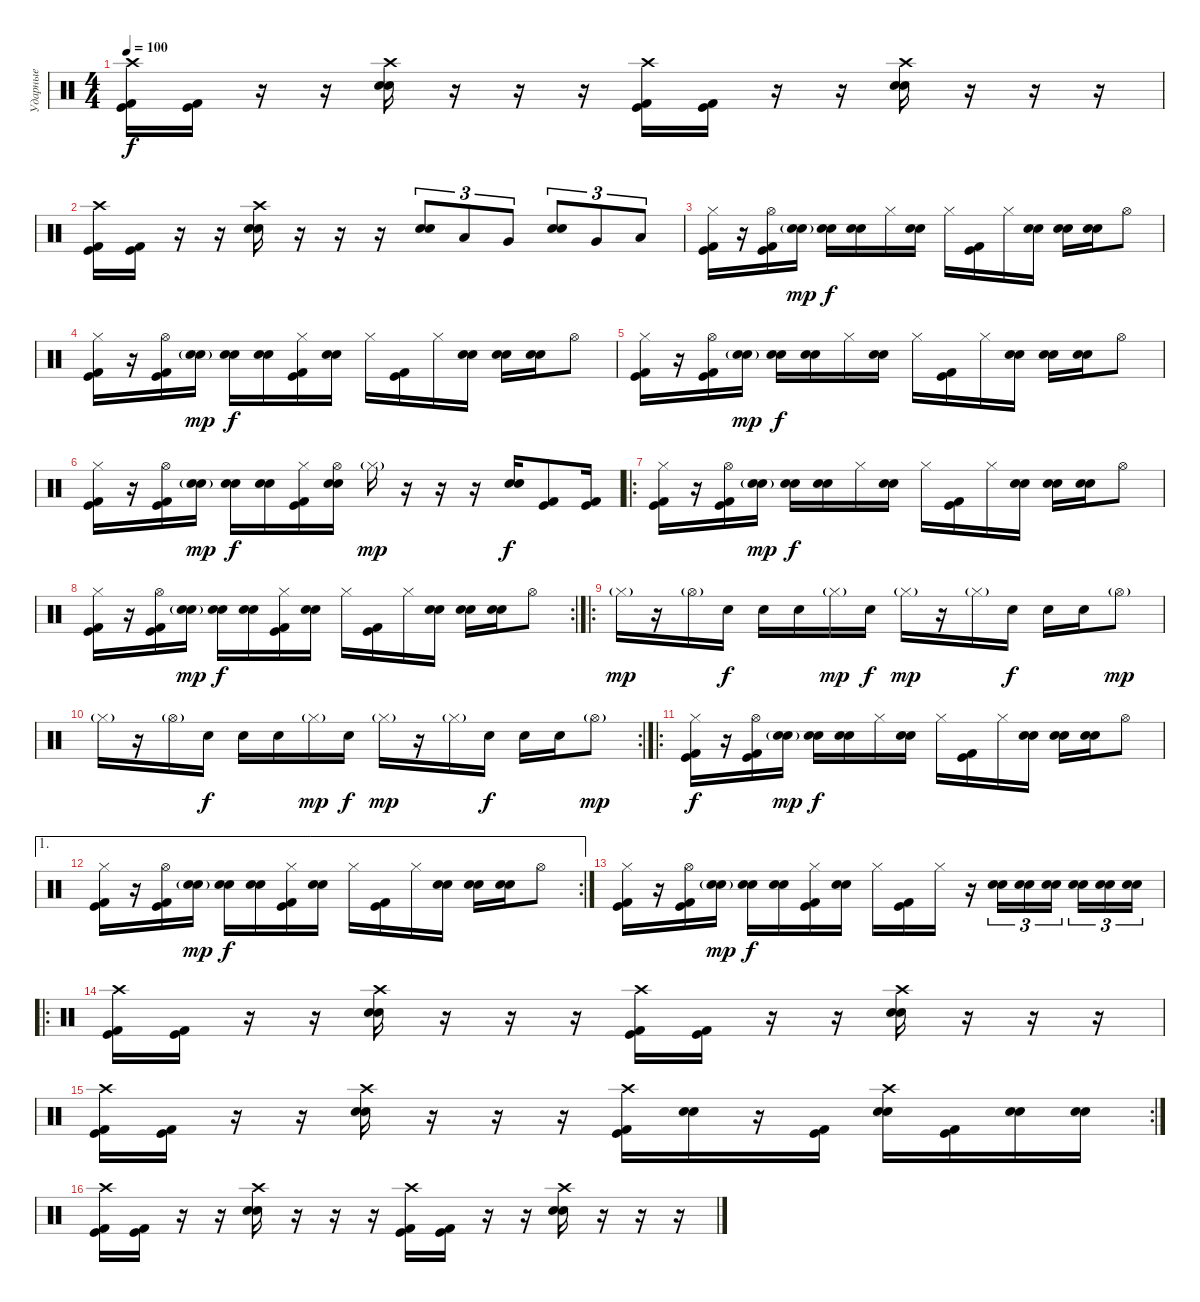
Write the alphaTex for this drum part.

\track ("Ударные" "Ударные") {instrument percussion}
\staff {score}
\articulation defaults
\ts (4 4)
\tempo 100
\clef neutral
\ks c
("Crash high (hit)" "Kick (hit)" "Kick (hit) 2").16{dy f} ("Kick (hit)" "Kick (hit) 2").16 r.16 r.16 ("Crash high (hit)" "Snare (hit) 2" "Electric Snare (hit)").16 r.16 r.16 r.16 ("Crash high (hit)" "Kick (hit)" "Kick (hit) 2").16 ("Kick (hit)" "Kick (hit) 2").16 r.16 r.16 ("Crash high (hit)" "Snare (hit) 2" "Electric Snare (hit)").16 r.16 r.16 r.16 |
("Crash high (hit)" "Kick (hit)" "Kick (hit) 2").16 ("Kick (hit)" "Kick (hit) 2").16 r.16 r.16 ("Crash high (hit)" "Snare (hit) 2" "Electric Snare (hit)").16 r.16 r.16 r.16 ("Snare (hit) 2" "Electric Snare (hit)").8{tu (3 2)} "Low Tom (hit)".8{tu (3 2)} "Very Low Tom (hit)".8{tu (3 2)} ("Snare (hit) 2" "Electric Snare (hit)").8{tu (3 2)} "Very Low Tom (hit)".8{tu (3 2)} "Low Floor Tom (hit)".8{tu (3 2)} |
("Hi-Hat (closed)" "Kick (hit)" "Kick (hit) 2").16 r.16 ("Hi-Hat (open)" "Kick (hit)" "Kick (hit) 2").16 ("Snare (hit) 2"{g} "Electric Snare (hit)"{g}).16{dy mp} ("Snare (hit) 2" "Electric Snare (hit)").16{dy f} ("Snare (hit) 2" "Electric Snare (hit)").16 "Hi-Hat (closed)".16 ("Snare (hit) 2" "Electric Snare (hit)").16 "Hi-Hat (closed)".16 ("Kick (hit)" "Kick (hit) 2").16 "Hi-Hat (closed)".16 ("Snare (hit) 2" "Electric Snare (hit)").16 ("Snare (hit) 2" "Electric Snare (hit)").16 ("Snare (hit) 2" "Electric Snare (hit)").16 "Hi-Hat (open)".8 |
("Hi-Hat (closed)" "Kick (hit)" "Kick (hit) 2").16 r.16 ("Hi-Hat (open)" "Kick (hit)" "Kick (hit) 2").16 ("Snare (hit) 2"{g} "Electric Snare (hit)"{g}).16{dy mp} ("Snare (hit) 2" "Electric Snare (hit)").16{dy f} ("Snare (hit) 2" "Electric Snare (hit)").16 ("Hi-Hat (closed)" "Kick (hit)" "Kick (hit) 2").16 ("Snare (hit) 2" "Electric Snare (hit)").16 "Hi-Hat (closed)".16 ("Kick (hit)" "Kick (hit) 2").16 "Hi-Hat (closed)".16 ("Snare (hit) 2" "Electric Snare (hit)").16 ("Snare (hit) 2" "Electric Snare (hit)").16 ("Snare (hit) 2" "Electric Snare (hit)").16 "Hi-Hat (open)".8 |
("Hi-Hat (closed)" "Kick (hit)" "Kick (hit) 2").16 r.16 ("Hi-Hat (open)" "Kick (hit)" "Kick (hit) 2").16 ("Snare (hit) 2"{g} "Electric Snare (hit)"{g}).16{dy mp} ("Snare (hit) 2" "Electric Snare (hit)").16{dy f} ("Snare (hit) 2" "Electric Snare (hit)").16 "Hi-Hat (closed)".16 ("Snare (hit) 2" "Electric Snare (hit)").16 "Hi-Hat (closed)".16 ("Kick (hit)" "Kick (hit) 2").16 "Hi-Hat (closed)".16 ("Snare (hit) 2" "Electric Snare (hit)").16 ("Snare (hit) 2" "Electric Snare (hit)").16 ("Snare (hit) 2" "Electric Snare (hit)").16 "Hi-Hat (open)".8 |
("Hi-Hat (closed)" "Kick (hit)" "Kick (hit) 2").16 r.16 ("Hi-Hat (open)" "Kick (hit)" "Kick (hit) 2").16 ("Snare (hit) 2"{g} "Electric Snare (hit)"{g}).16{dy mp} ("Snare (hit) 2" "Electric Snare (hit)").16{dy f} ("Snare (hit) 2" "Electric Snare (hit)").16 ("Hi-Hat (closed)" "Kick (hit)" "Kick (hit) 2").16 ("Hi-Hat (open)" "Snare (hit) 2" "Electric Snare (hit)").16 "Hi-Hat (closed)"{g}.16{dy mp} r.16 r.16 r.16 ("Snare (hit) 2" "Snare (hit) 2").16{bd 480 dy f} ("Kick (hit)" "Kick (hit) 2").8 ("Kick (hit)" "Kick (hit) 2").16 |
\ro
("Hi-Hat (closed)" "Kick (hit)" "Kick (hit) 2").16 r.16 ("Hi-Hat (open)" "Kick (hit)" "Kick (hit) 2").16 ("Snare (hit) 2"{g} "Electric Snare (hit)"{g}).16{dy mp} ("Snare (hit) 2" "Electric Snare (hit)").16{dy f} ("Snare (hit) 2" "Electric Snare (hit)").16 "Hi-Hat (closed)".16 ("Snare (hit) 2" "Electric Snare (hit)").16 "Hi-Hat (closed)".16 ("Kick (hit)" "Kick (hit) 2").16 "Hi-Hat (closed)".16 ("Snare (hit) 2" "Electric Snare (hit)").16 ("Snare (hit) 2" "Electric Snare (hit)").16 ("Snare (hit) 2" "Electric Snare (hit)").16 "Hi-Hat (open)".8 |
\rc 2
("Hi-Hat (closed)" "Kick (hit)" "Kick (hit) 2").16 r.16 ("Hi-Hat (open)" "Kick (hit)" "Kick (hit) 2").16 ("Snare (hit) 2"{g} "Electric Snare (hit)"{g}).16{dy mp} ("Snare (hit) 2" "Electric Snare (hit)").16{dy f} ("Snare (hit) 2" "Electric Snare (hit)").16 ("Hi-Hat (closed)" "Kick (hit)" "Kick (hit) 2").16 ("Snare (hit) 2" "Electric Snare (hit)").16 "Hi-Hat (closed)".16 ("Kick (hit)" "Kick (hit) 2").16 "Hi-Hat (closed)".16 ("Snare (hit) 2" "Electric Snare (hit)").16 ("Snare (hit) 2" "Electric Snare (hit)").16 ("Snare (hit) 2" "Electric Snare (hit)").16 "Hi-Hat (open)".8 |
\ro "Hi-Hat (closed)"{g}.16{dy mp}
r.16 "Hi-Hat (open)"{g}.16 "Snare (hit) 2".16{dy f} "Snare (hit) 2".16 "Snare (hit) 2".16 "Hi-Hat (closed)"{g}.16{dy mp} "Snare (hit) 2".16{dy f} "Hi-Hat (closed)"{g}.16{dy mp} r.16 "Hi-Hat (closed)"{g}.16 "Snare (hit) 2".16{dy f} "Snare (hit) 2".16 "Snare (hit) 2".16 "Hi-Hat (open)"{g}.8{dy mp} |
\rc 2 "Hi-Hat (closed)"{g}.16
r.16 "Hi-Hat (open)"{g}.16 "Snare (hit) 2".16{dy f} "Snare (hit) 2".16 "Snare (hit) 2".16 "Hi-Hat (closed)"{g}.16{dy mp} "Snare (hit) 2".16{dy f} "Hi-Hat (closed)"{g}.16{dy mp} r.16 "Hi-Hat (closed)"{g}.16 "Snare (hit) 2".16{dy f} "Snare (hit) 2".16 "Snare (hit) 2".16 "Hi-Hat (open)"{g}.8{dy mp} |
\ro
("Hi-Hat (closed)" "Kick (hit)" "Kick (hit) 2").16{dy f} r.16 ("Hi-Hat (open)" "Kick (hit)" "Kick (hit) 2").16 ("Snare (hit) 2"{g} "Electric Snare (hit)"{g}).16{dy mp} ("Snare (hit) 2" "Electric Snare (hit)").16{dy f} ("Snare (hit) 2" "Electric Snare (hit)").16 "Hi-Hat (closed)".16 ("Snare (hit) 2" "Electric Snare (hit)").16 "Hi-Hat (closed)".16 ("Kick (hit)" "Kick (hit) 2").16 "Hi-Hat (closed)".16 ("Snare (hit) 2" "Electric Snare (hit)").16 ("Snare (hit) 2" "Electric Snare (hit)").16 ("Snare (hit) 2" "Electric Snare (hit)").16 "Hi-Hat (open)".8 |
\ae 1
\rc 2
("Hi-Hat (closed)" "Kick (hit)" "Kick (hit) 2").16 r.16 ("Hi-Hat (open)" "Kick (hit)" "Kick (hit) 2").16 ("Snare (hit) 2"{g} "Electric Snare (hit)"{g}).16{dy mp} ("Snare (hit) 2" "Electric Snare (hit)").16{dy f} ("Snare (hit) 2" "Electric Snare (hit)").16 ("Hi-Hat (closed)" "Kick (hit)" "Kick (hit) 2").16 ("Snare (hit) 2" "Electric Snare (hit)").16 "Hi-Hat (closed)".16 ("Kick (hit)" "Kick (hit) 2").16 "Hi-Hat (closed)".16 ("Snare (hit) 2" "Electric Snare (hit)").16 ("Snare (hit) 2" "Electric Snare (hit)").16 ("Snare (hit) 2" "Electric Snare (hit)").16 "Hi-Hat (open)".8 |
("Hi-Hat (closed)" "Kick (hit)" "Kick (hit) 2").16 r.16 ("Hi-Hat (open)" "Kick (hit)" "Kick (hit) 2").16 ("Snare (hit) 2"{g} "Electric Snare (hit)"{g}).16{dy mp} ("Snare (hit) 2" "Electric Snare (hit)").16{dy f} ("Snare (hit) 2" "Electric Snare (hit)").16 ("Hi-Hat (closed)" "Kick (hit)" "Kick (hit) 2").16 ("Snare (hit) 2" "Electric Snare (hit)").16 "Hi-Hat (closed)".16 ("Kick (hit)" "Kick (hit) 2").16 "Hi-Hat (closed)".16 r.16 ("Snare (hit) 2" "Electric Snare (hit)").16{tu (3 2)} ("Snare (hit) 2" "Electric Snare (hit)").16{tu (3 2)} ("Snare (hit) 2" "Electric Snare (hit)").16{tu (3 2) beam splitsecondary} ("Snare (hit) 2" "Electric Snare (hit)").16{tu (3 2)} ("Snare (hit) 2" "Electric Snare (hit)").16{tu (3 2)} ("Snare (hit) 2" "Electric Snare (hit)").16{tu (3 2)} |
\ro
("Crash high (hit)" "Kick (hit)" "Kick (hit) 2").16 ("Kick (hit)" "Kick (hit) 2").16 r.16 r.16 ("Crash high (hit)" "Snare (hit) 2" "Electric Snare (hit)").16 r.16 r.16 r.16 ("Crash high (hit)" "Kick (hit)" "Kick (hit) 2").16 ("Kick (hit)" "Kick (hit) 2").16 r.16 r.16 ("Crash high (hit)" "Snare (hit) 2" "Electric Snare (hit)").16 r.16 r.16 r.16 |
\rc 2
("Crash high (hit)" "Kick (hit)" "Kick (hit) 2").16 ("Kick (hit)" "Kick (hit) 2").16 r.16 r.16 ("Crash high (hit)" "Snare (hit) 2" "Electric Snare (hit)").16 r.16 r.16 r.16 ("Crash high (hit)" "Kick (hit)" "Kick (hit) 2").16 ("Snare (hit) 2" "Electric Snare (hit)").16 r.16 ("Kick (hit)" "Kick (hit) 2").16 ("Crash high (hit)" "Snare (hit) 2" "Electric Snare (hit)").16 ("Kick (hit)" "Kick (hit) 2").16 ("Snare (hit) 2" "Electric Snare (hit)").16 ("Snare (hit) 2" "Electric Snare (hit)").16 |
("Crash high (hit)" "Kick (hit)" "Kick (hit) 2").16 ("Kick (hit)" "Kick (hit) 2").16 r.16 r.16 ("Crash high (hit)" "Snare (hit) 2" "Electric Snare (hit)").16 r.16 r.16 r.16 ("Crash high (hit)" "Kick (hit)" "Kick (hit) 2").16 ("Kick (hit)" "Kick (hit) 2").16 r.16 r.16 ("Crash high (hit)" "Snare (hit) 2" "Electric Snare (hit)").16 r.16 r.16 r.16
